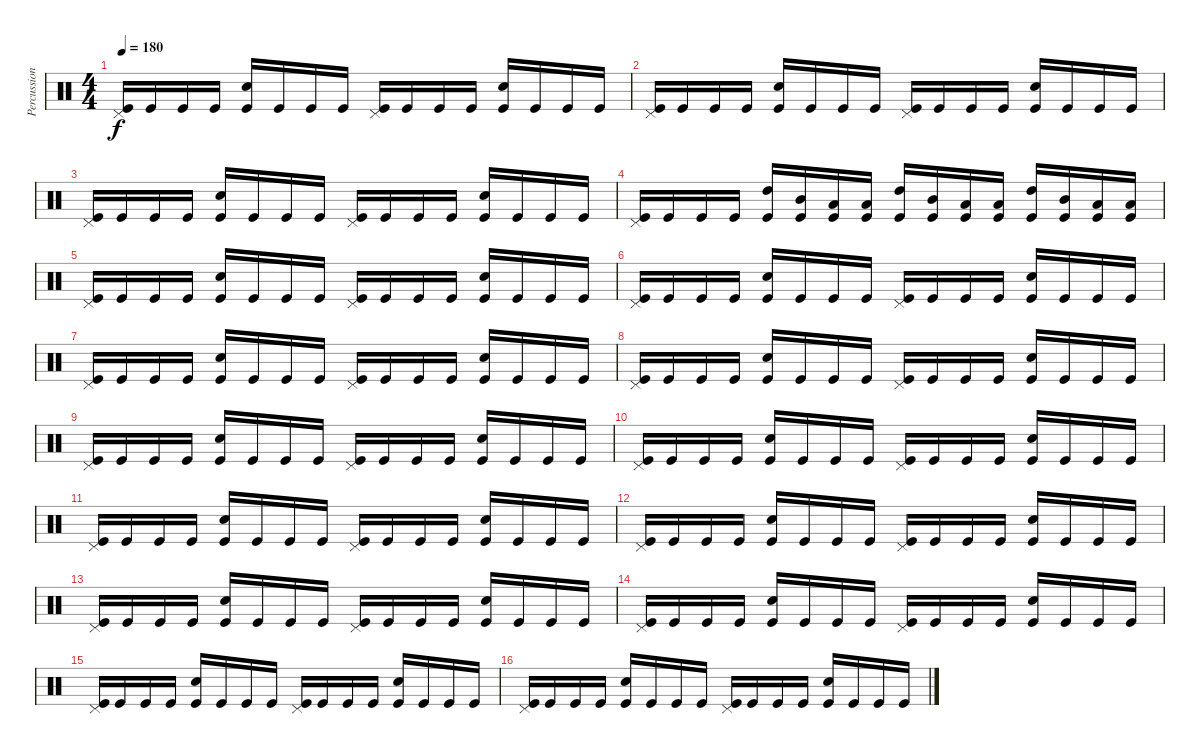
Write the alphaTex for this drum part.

\track ("Percussion" "Percussion") {instrument percussion}
\staff {score}
\articulation defaults
\ts (4 4)
\tempo 180
\clef neutral
\ks c
("Pedal Hi-Hat (hit)" "Kick (hit)").16{dy f} "Kick (hit)".16 "Kick (hit)".16 "Kick (hit)".16 ("Electric Snare (hit)" "Kick (hit)").16 "Kick (hit)".16 "Kick (hit)".16 "Kick (hit)".16 ("Pedal Hi-Hat (hit)" "Kick (hit)").16 "Kick (hit)".16 "Kick (hit)".16 "Kick (hit)".16 ("Electric Snare (hit)" "Kick (hit)").16 "Kick (hit)".16 "Kick (hit)".16 "Kick (hit)".16 |
("Pedal Hi-Hat (hit)" "Kick (hit)").16 "Kick (hit)".16 "Kick (hit)".16 "Kick (hit)".16 ("Electric Snare (hit)" "Kick (hit)").16 "Kick (hit)".16 "Kick (hit)".16 "Kick (hit)".16 ("Pedal Hi-Hat (hit)" "Kick (hit)").16 "Kick (hit)".16 "Kick (hit)".16 "Kick (hit)".16 ("Electric Snare (hit)" "Kick (hit)").16 "Kick (hit)".16 "Kick (hit)".16 "Kick (hit)".16 |
("Pedal Hi-Hat (hit)" "Kick (hit)").16 "Kick (hit)".16 "Kick (hit)".16 "Kick (hit)".16 ("Electric Snare (hit)" "Kick (hit)").16 "Kick (hit)".16 "Kick (hit)".16 "Kick (hit)".16 ("Pedal Hi-Hat (hit)" "Kick (hit)").16 "Kick (hit)".16 "Kick (hit)".16 "Kick (hit)".16 ("Electric Snare (hit)" "Kick (hit)").16 "Kick (hit)".16 "Kick (hit)".16 "Kick (hit)".16 |
("Pedal Hi-Hat (hit)" "Kick (hit)").16 "Kick (hit)".16 "Kick (hit)".16 "Kick (hit)".16 ("High Tom (hit)" "Kick (hit)").16 ("Mid Tom (hit)" "Kick (hit)").16 ("Low Tom (hit)" "Kick (hit)").16 ("Low Floor Tom (hit)" "Kick (hit)").16 ("High Tom (hit)" "Kick (hit)").16 ("Mid Tom (hit)" "Kick (hit)").16 ("Low Tom (hit)" "Kick (hit)").16 ("Low Floor Tom (hit)" "Kick (hit)").16 ("High Tom (hit)" "Kick (hit)").16 ("Mid Tom (hit)" "Kick (hit)").16 ("Low Tom (hit)" "Kick (hit)").16 ("Low Floor Tom (hit)" "Kick (hit)").16 |
("Pedal Hi-Hat (hit)" "Kick (hit)").16 "Kick (hit)".16 "Kick (hit)".16 "Kick (hit)".16 ("Electric Snare (hit)" "Kick (hit)").16 "Kick (hit)".16 "Kick (hit)".16 "Kick (hit)".16 ("Pedal Hi-Hat (hit)" "Kick (hit)").16 "Kick (hit)".16 "Kick (hit)".16 "Kick (hit)".16 ("Electric Snare (hit)" "Kick (hit)").16 "Kick (hit)".16 "Kick (hit)".16 "Kick (hit)".16 |
("Pedal Hi-Hat (hit)" "Kick (hit)").16 "Kick (hit)".16 "Kick (hit)".16 "Kick (hit)".16 ("Electric Snare (hit)" "Kick (hit)").16 "Kick (hit)".16 "Kick (hit)".16 "Kick (hit)".16 ("Pedal Hi-Hat (hit)" "Kick (hit)").16 "Kick (hit)".16 "Kick (hit)".16 "Kick (hit)".16 ("Electric Snare (hit)" "Kick (hit)").16 "Kick (hit)".16 "Kick (hit)".16 "Kick (hit)".16 |
("Pedal Hi-Hat (hit)" "Kick (hit)").16 "Kick (hit)".16 "Kick (hit)".16 "Kick (hit)".16 ("Electric Snare (hit)" "Kick (hit)").16 "Kick (hit)".16 "Kick (hit)".16 "Kick (hit)".16 ("Pedal Hi-Hat (hit)" "Kick (hit)").16 "Kick (hit)".16 "Kick (hit)".16 "Kick (hit)".16 ("Electric Snare (hit)" "Kick (hit)").16 "Kick (hit)".16 "Kick (hit)".16 "Kick (hit)".16 |
("Pedal Hi-Hat (hit)" "Kick (hit)").16 "Kick (hit)".16 "Kick (hit)".16 "Kick (hit)".16 ("Electric Snare (hit)" "Kick (hit)").16 "Kick (hit)".16 "Kick (hit)".16 "Kick (hit)".16 ("Pedal Hi-Hat (hit)" "Kick (hit)").16 "Kick (hit)".16 "Kick (hit)".16 "Kick (hit)".16 ("Electric Snare (hit)" "Kick (hit)").16 "Kick (hit)".16 "Kick (hit)".16 "Kick (hit)".16 |
("Pedal Hi-Hat (hit)" "Kick (hit)").16 "Kick (hit)".16 "Kick (hit)".16 "Kick (hit)".16 ("Electric Snare (hit)" "Kick (hit)").16 "Kick (hit)".16 "Kick (hit)".16 "Kick (hit)".16 ("Pedal Hi-Hat (hit)" "Kick (hit)").16 "Kick (hit)".16 "Kick (hit)".16 "Kick (hit)".16 ("Electric Snare (hit)" "Kick (hit)").16 "Kick (hit)".16 "Kick (hit)".16 "Kick (hit)".16 |
("Pedal Hi-Hat (hit)" "Kick (hit)").16 "Kick (hit)".16 "Kick (hit)".16 "Kick (hit)".16 ("Electric Snare (hit)" "Kick (hit)").16 "Kick (hit)".16 "Kick (hit)".16 "Kick (hit)".16 ("Pedal Hi-Hat (hit)" "Kick (hit)").16 "Kick (hit)".16 "Kick (hit)".16 "Kick (hit)".16 ("Electric Snare (hit)" "Kick (hit)").16 "Kick (hit)".16 "Kick (hit)".16 "Kick (hit)".16 |
("Pedal Hi-Hat (hit)" "Kick (hit)").16 "Kick (hit)".16 "Kick (hit)".16 "Kick (hit)".16 ("Electric Snare (hit)" "Kick (hit)").16 "Kick (hit)".16 "Kick (hit)".16 "Kick (hit)".16 ("Pedal Hi-Hat (hit)" "Kick (hit)").16 "Kick (hit)".16 "Kick (hit)".16 "Kick (hit)".16 ("Electric Snare (hit)" "Kick (hit)").16 "Kick (hit)".16 "Kick (hit)".16 "Kick (hit)".16 |
("Pedal Hi-Hat (hit)" "Kick (hit)").16 "Kick (hit)".16 "Kick (hit)".16 "Kick (hit)".16 ("Electric Snare (hit)" "Kick (hit)").16 "Kick (hit)".16 "Kick (hit)".16 "Kick (hit)".16 ("Pedal Hi-Hat (hit)" "Kick (hit)").16 "Kick (hit)".16 "Kick (hit)".16 "Kick (hit)".16 ("Electric Snare (hit)" "Kick (hit)").16 "Kick (hit)".16 "Kick (hit)".16 "Kick (hit)".16 |
("Pedal Hi-Hat (hit)" "Kick (hit)").16 "Kick (hit)".16 "Kick (hit)".16 "Kick (hit)".16 ("Electric Snare (hit)" "Kick (hit)").16 "Kick (hit)".16 "Kick (hit)".16 "Kick (hit)".16 ("Pedal Hi-Hat (hit)" "Kick (hit)").16 "Kick (hit)".16 "Kick (hit)".16 "Kick (hit)".16 ("Electric Snare (hit)" "Kick (hit)").16 "Kick (hit)".16 "Kick (hit)".16 "Kick (hit)".16 |
("Pedal Hi-Hat (hit)" "Kick (hit)").16 "Kick (hit)".16 "Kick (hit)".16 "Kick (hit)".16 ("Electric Snare (hit)" "Kick (hit)").16 "Kick (hit)".16 "Kick (hit)".16 "Kick (hit)".16 ("Pedal Hi-Hat (hit)" "Kick (hit)").16 "Kick (hit)".16 "Kick (hit)".16 "Kick (hit)".16 ("Electric Snare (hit)" "Kick (hit)").16 "Kick (hit)".16 "Kick (hit)".16 "Kick (hit)".16 |
("Pedal Hi-Hat (hit)" "Kick (hit)").16 "Kick (hit)".16 "Kick (hit)".16 "Kick (hit)".16 ("Electric Snare (hit)" "Kick (hit)").16 "Kick (hit)".16 "Kick (hit)".16 "Kick (hit)".16 ("Pedal Hi-Hat (hit)" "Kick (hit)").16 "Kick (hit)".16 "Kick (hit)".16 "Kick (hit)".16 ("Electric Snare (hit)" "Kick (hit)").16 "Kick (hit)".16 "Kick (hit)".16 "Kick (hit)".16 |
("Pedal Hi-Hat (hit)" "Kick (hit)").16 "Kick (hit)".16 "Kick (hit)".16 "Kick (hit)".16 ("Electric Snare (hit)" "Kick (hit)").16 "Kick (hit)".16 "Kick (hit)".16 "Kick (hit)".16 ("Pedal Hi-Hat (hit)" "Kick (hit)").16 "Kick (hit)".16 "Kick (hit)".16 "Kick (hit)".16 ("Electric Snare (hit)" "Kick (hit)").16 "Kick (hit)".16 "Kick (hit)".16 "Kick (hit)".16
